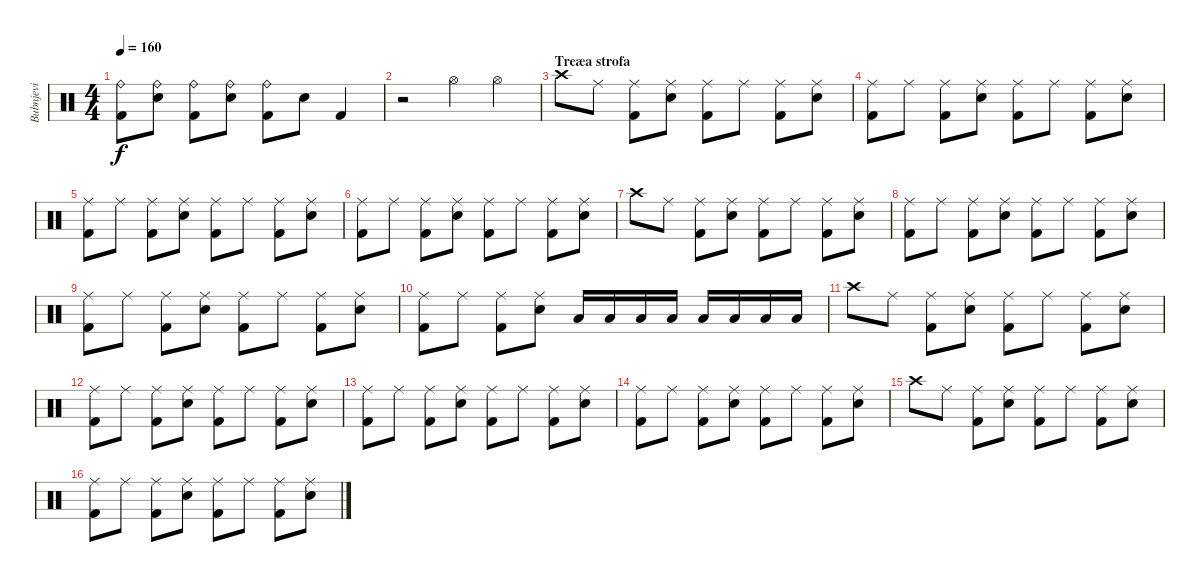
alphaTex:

\track ("Bubnjevi" "Bubnjevi") {instrument percussion}
\staff {score}
\articulation defaults
\ts (4 4)
\tempo 160
\clef neutral
\ks c
("Ride (bell)" "Kick (hit) 2").8{dy f} ("Ride (bell)" "Snare (hit) 2").8 ("Ride (bell)" "Kick (hit) 2").8 ("Ride (bell)" "Snare (hit) 2").8 ("Ride (bell)" "Kick (hit) 2").8 "Snare (hit) 2".8 "Kick (hit) 2".4 |
r.2 "Hi-Hat (open)".4 "Hi-Hat (open)".4 |
\section ("" "Treæa strofa")
"Crash high (hit)".8 "Ride (middle)".8 ("Ride (middle)" "Kick (hit) 2").8 ("Ride (middle)" "Snare (hit) 2").8 ("Ride (middle)" "Kick (hit) 2").8 "Ride (middle)".8 ("Ride (middle)" "Kick (hit) 2").8 ("Ride (middle)" "Snare (hit) 2").8 |
("Ride (middle)" "Kick (hit) 2").8 "Ride (middle)".8 ("Ride (middle)" "Kick (hit) 2").8 ("Ride (middle)" "Snare (hit) 2").8 ("Ride (middle)" "Kick (hit) 2").8 "Ride (middle)".8 ("Ride (middle)" "Kick (hit) 2").8 ("Ride (middle)" "Snare (hit) 2").8 |
("Ride (middle)" "Kick (hit) 2").8 "Ride (middle)".8 ("Ride (middle)" "Kick (hit) 2").8 ("Ride (middle)" "Snare (hit) 2").8 ("Ride (middle)" "Kick (hit) 2").8 "Ride (middle)".8 ("Ride (middle)" "Kick (hit) 2").8 ("Ride (middle)" "Snare (hit) 2").8 |
("Ride (middle)" "Kick (hit) 2").8 "Ride (middle)".8 ("Ride (middle)" "Kick (hit) 2").8 ("Ride (middle)" "Snare (hit) 2").8 ("Ride (middle)" "Kick (hit) 2").8 "Ride (middle)".8 ("Ride (middle)" "Kick (hit) 2").8 ("Ride (middle)" "Snare (hit) 2").8 |
"Crash high (hit)".8 "Ride (middle)".8 ("Ride (middle)" "Kick (hit) 2").8 ("Ride (middle)" "Snare (hit) 2").8 ("Ride (middle)" "Kick (hit) 2").8 "Ride (middle)".8 ("Ride (middle)" "Kick (hit) 2").8 ("Ride (middle)" "Snare (hit) 2").8 |
("Ride (middle)" "Kick (hit) 2").8 "Ride (middle)".8 ("Ride (middle)" "Kick (hit) 2").8 ("Ride (middle)" "Snare (hit) 2").8 ("Ride (middle)" "Kick (hit) 2").8 "Ride (middle)".8 ("Ride (middle)" "Kick (hit) 2").8 ("Ride (middle)" "Snare (hit) 2").8 |
("Ride (middle)" "Kick (hit) 2").8 "Ride (middle)".8 ("Ride (middle)" "Kick (hit) 2").8 ("Ride (middle)" "Snare (hit) 2").8 ("Ride (middle)" "Kick (hit) 2").8 "Ride (middle)".8 ("Ride (middle)" "Kick (hit) 2").8 ("Ride (middle)" "Snare (hit) 2").8 |
("Ride (middle)" "Kick (hit) 2").8 "Ride (middle)".8 ("Ride (middle)" "Kick (hit) 2").8 ("Ride (middle)" "Snare (hit) 2").8 "Low Tom (hit)".16 "Low Tom (hit)".16 "Low Tom (hit)".16 "Low Tom (hit)".16 "Low Tom (hit)".16 "Low Tom (hit)".16 "Low Tom (hit)".16 "Low Tom (hit)".16 |
"Crash high (hit)".8 "Ride (middle)".8 ("Ride (middle)" "Kick (hit) 2").8 ("Ride (middle)" "Snare (hit) 2").8 ("Ride (middle)" "Kick (hit) 2").8 "Ride (middle)".8 ("Ride (middle)" "Kick (hit) 2").8 ("Ride (middle)" "Snare (hit) 2").8 |
("Ride (middle)" "Kick (hit) 2").8 "Ride (middle)".8 ("Ride (middle)" "Kick (hit) 2").8 ("Ride (middle)" "Snare (hit) 2").8 ("Ride (middle)" "Kick (hit) 2").8 "Ride (middle)".8 ("Ride (middle)" "Kick (hit) 2").8 ("Ride (middle)" "Snare (hit) 2").8 |
("Ride (middle)" "Kick (hit) 2").8 "Ride (middle)".8 ("Ride (middle)" "Kick (hit) 2").8 ("Ride (middle)" "Snare (hit) 2").8 ("Ride (middle)" "Kick (hit) 2").8 "Ride (middle)".8 ("Ride (middle)" "Kick (hit) 2").8 ("Ride (middle)" "Snare (hit) 2").8 |
("Ride (middle)" "Kick (hit) 2").8 "Ride (middle)".8 ("Ride (middle)" "Kick (hit) 2").8 ("Ride (middle)" "Snare (hit) 2").8 ("Ride (middle)" "Kick (hit) 2").8 "Ride (middle)".8 ("Ride (middle)" "Kick (hit) 2").8 ("Ride (middle)" "Snare (hit) 2").8 |
"Crash high (hit)".8 "Ride (middle)".8 ("Ride (middle)" "Kick (hit) 2").8 ("Ride (middle)" "Snare (hit) 2").8 ("Ride (middle)" "Kick (hit) 2").8 "Ride (middle)".8 ("Ride (middle)" "Kick (hit) 2").8 ("Ride (middle)" "Snare (hit) 2").8 |
("Ride (middle)" "Kick (hit) 2").8 "Ride (middle)".8 ("Ride (middle)" "Kick (hit) 2").8 ("Ride (middle)" "Snare (hit) 2").8 ("Ride (middle)" "Kick (hit) 2").8 "Ride (middle)".8 ("Ride (middle)" "Kick (hit) 2").8 ("Ride (middle)" "Snare (hit) 2").8
